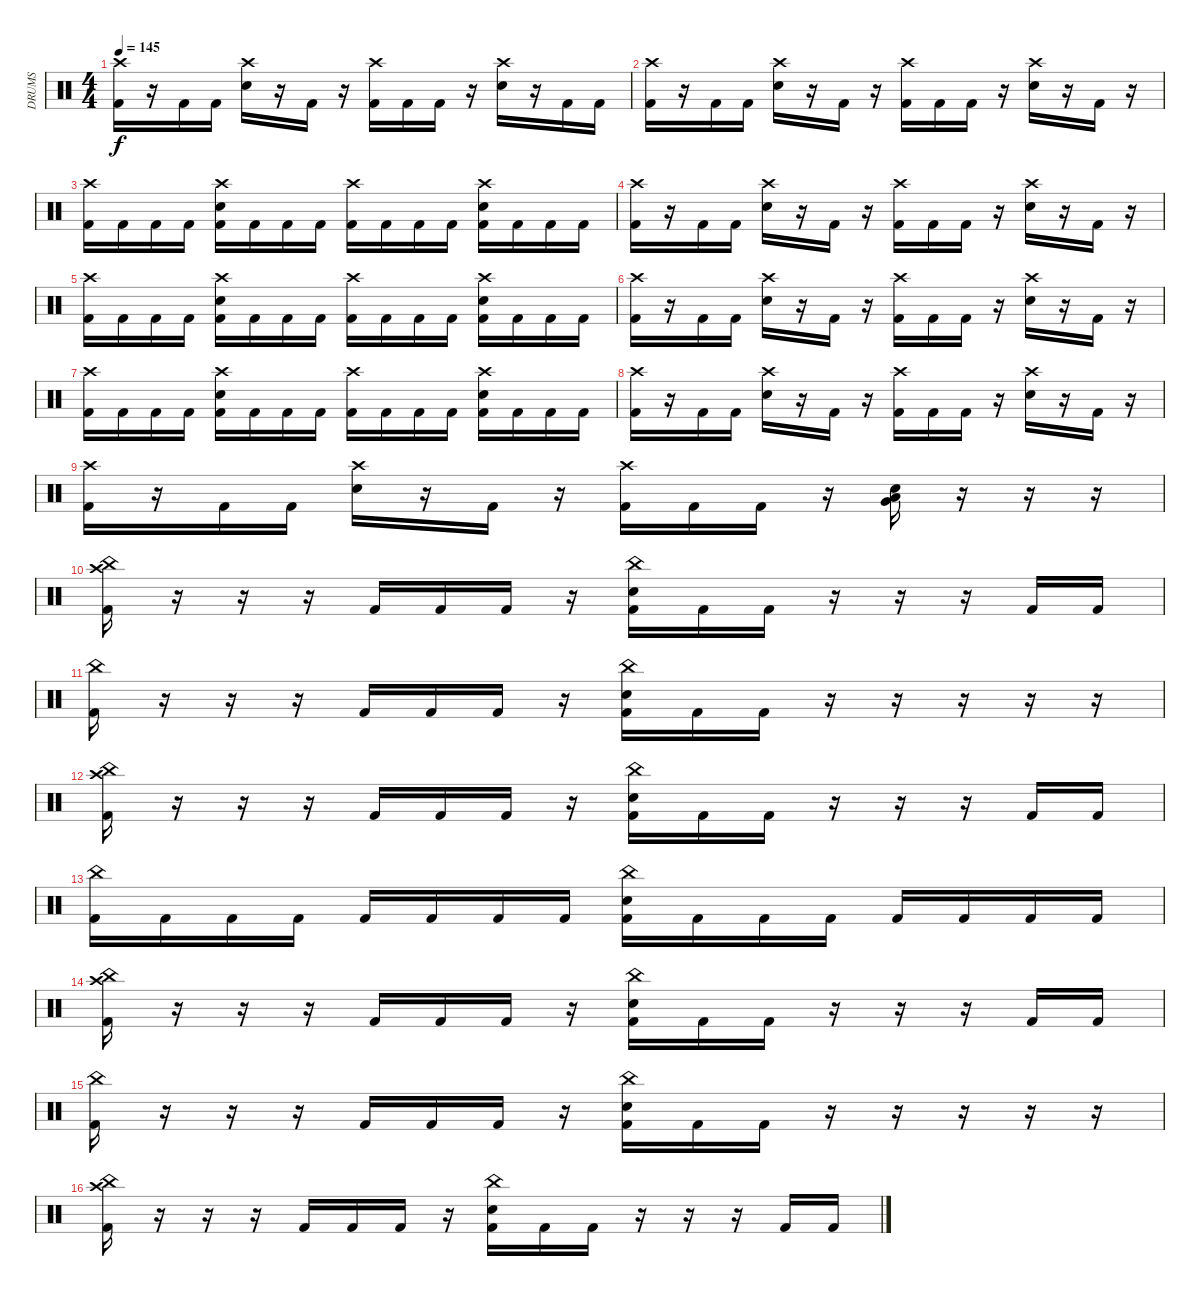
\track ("DRUMS" "DRUMS") {instrument percussion}
\staff {score}
\articulation defaults
\ts (4 4)
\tempo 145
\clef neutral
\ks c
("Crash high (hit)" "Kick (hit) 2").16{dy f} r.16 "Kick (hit) 2".16 "Kick (hit) 2".16 ("Crash high (hit)" "Electric Snare (hit)").16 r.16 "Kick (hit) 2".16 r.16 ("Crash high (hit)" "Kick (hit) 2").16 "Kick (hit) 2".16 "Kick (hit) 2".16 r.16 ("Crash high (hit)" "Electric Snare (hit)").16 r.16 "Kick (hit) 2".16 "Kick (hit) 2".16 |
("Crash high (hit)" "Kick (hit) 2").16 r.16 "Kick (hit) 2".16 "Kick (hit) 2".16 ("Crash high (hit)" "Electric Snare (hit)").16 r.16 "Kick (hit) 2".16 r.16 ("Crash high (hit)" "Kick (hit) 2").16 "Kick (hit) 2".16 "Kick (hit) 2".16 r.16 ("Crash high (hit)" "Electric Snare (hit)").16 r.16 "Kick (hit) 2".16 r.16 |
("Crash high (hit)" "Kick (hit) 2").16 "Kick (hit) 2".16 "Kick (hit) 2".16 "Kick (hit) 2".16 ("Crash high (hit)" "Electric Snare (hit)" "Kick (hit) 2").16 "Kick (hit) 2".16 "Kick (hit) 2".16 "Kick (hit) 2".16 ("Crash high (hit)" "Kick (hit) 2").16 "Kick (hit) 2".16 "Kick (hit) 2".16 "Kick (hit) 2".16 ("Crash high (hit)" "Electric Snare (hit)" "Kick (hit) 2").16 "Kick (hit) 2".16 "Kick (hit) 2".16 "Kick (hit) 2".16 |
("Crash high (hit)" "Kick (hit) 2").16 r.16 "Kick (hit) 2".16 "Kick (hit) 2".16 ("Crash high (hit)" "Electric Snare (hit)").16 r.16 "Kick (hit) 2".16 r.16 ("Crash high (hit)" "Kick (hit) 2").16 "Kick (hit) 2".16 "Kick (hit) 2".16 r.16 ("Crash high (hit)" "Electric Snare (hit)").16 r.16 "Kick (hit) 2".16 r.16 |
("Crash high (hit)" "Kick (hit) 2").16 "Kick (hit) 2".16 "Kick (hit) 2".16 "Kick (hit) 2".16 ("Crash high (hit)" "Electric Snare (hit)" "Kick (hit) 2").16 "Kick (hit) 2".16 "Kick (hit) 2".16 "Kick (hit) 2".16 ("Crash high (hit)" "Kick (hit) 2").16 "Kick (hit) 2".16 "Kick (hit) 2".16 "Kick (hit) 2".16 ("Crash high (hit)" "Electric Snare (hit)" "Kick (hit) 2").16 "Kick (hit) 2".16 "Kick (hit) 2".16 "Kick (hit) 2".16 |
("Crash high (hit)" "Kick (hit) 2").16 r.16 "Kick (hit) 2".16 "Kick (hit) 2".16 ("Crash high (hit)" "Electric Snare (hit)").16 r.16 "Kick (hit) 2".16 r.16 ("Crash high (hit)" "Kick (hit) 2").16 "Kick (hit) 2".16 "Kick (hit) 2".16 r.16 ("Crash high (hit)" "Electric Snare (hit)").16 r.16 "Kick (hit) 2".16 r.16 |
("Crash high (hit)" "Kick (hit) 2").16 "Kick (hit) 2".16 "Kick (hit) 2".16 "Kick (hit) 2".16 ("Crash high (hit)" "Electric Snare (hit)" "Kick (hit) 2").16 "Kick (hit) 2".16 "Kick (hit) 2".16 "Kick (hit) 2".16 ("Crash high (hit)" "Kick (hit) 2").16 "Kick (hit) 2".16 "Kick (hit) 2".16 "Kick (hit) 2".16 ("Crash high (hit)" "Electric Snare (hit)" "Kick (hit) 2").16 "Kick (hit) 2".16 "Kick (hit) 2".16 "Kick (hit) 2".16 |
("Crash high (hit)" "Kick (hit) 2").16 r.16 "Kick (hit) 2".16 "Kick (hit) 2".16 ("Crash high (hit)" "Electric Snare (hit)").16 r.16 "Kick (hit) 2".16 r.16 ("Crash high (hit)" "Kick (hit) 2").16 "Kick (hit) 2".16 "Kick (hit) 2".16 r.16 ("Crash high (hit)" "Electric Snare (hit)").16 r.16 "Kick (hit) 2".16 r.16 |
("Crash high (hit)" "Kick (hit) 2").16 r.16 "Kick (hit) 2".16 "Kick (hit) 2".16 ("Crash high (hit)" "Electric Snare (hit)").16 r.16 "Kick (hit) 2".16 r.16 ("Crash high (hit)" "Kick (hit) 2").16 "Kick (hit) 2".16 "Kick (hit) 2".16 r.16 ("Very Low Tom (hit)" "Low Floor Tom (hit)" "Electric Snare (hit)").16 r.16 r.16 r.16 |
("Crash high (hit)" "China (hit)" "Kick (hit) 2").16 r.16 r.16 r.16 "Kick (hit) 2".16 "Kick (hit) 2".16 "Kick (hit) 2".16 r.16 ("China (hit)" "Electric Snare (hit)" "Kick (hit) 2").16 "Kick (hit) 2".16 "Kick (hit) 2".16 r.16 r.16 r.16 "Kick (hit) 2".16 "Kick (hit) 2".16 |
("China (hit)" "Kick (hit) 2").16 r.16 r.16 r.16 "Kick (hit) 2".16 "Kick (hit) 2".16 "Kick (hit) 2".16 r.16 ("China (hit)" "Electric Snare (hit)" "Kick (hit) 2").16 "Kick (hit) 2".16 "Kick (hit) 2".16 r.16 r.16 r.16 r.16 r.16 |
("Crash high (hit)" "China (hit)" "Kick (hit) 2").16 r.16 r.16 r.16 "Kick (hit) 2".16 "Kick (hit) 2".16 "Kick (hit) 2".16 r.16 ("China (hit)" "Electric Snare (hit)" "Kick (hit) 2").16 "Kick (hit) 2".16 "Kick (hit) 2".16 r.16 r.16 r.16 "Kick (hit) 2".16 "Kick (hit) 2".16 |
("China (hit)" "Kick (hit) 2").16 "Kick (hit) 2".16 "Kick (hit) 2".16 "Kick (hit) 2".16 "Kick (hit) 2".16 "Kick (hit) 2".16 "Kick (hit) 2".16 "Kick (hit) 2".16 ("China (hit)" "Electric Snare (hit)" "Kick (hit) 2").16 "Kick (hit) 2".16 "Kick (hit) 2".16 "Kick (hit) 2".16 "Kick (hit) 2".16 "Kick (hit) 2".16 "Kick (hit) 2".16 "Kick (hit) 2".16 |
("Crash high (hit)" "China (hit)" "Kick (hit) 2").16 r.16 r.16 r.16 "Kick (hit) 2".16 "Kick (hit) 2".16 "Kick (hit) 2".16 r.16 ("China (hit)" "Electric Snare (hit)" "Kick (hit) 2").16 "Kick (hit) 2".16 "Kick (hit) 2".16 r.16 r.16 r.16 "Kick (hit) 2".16 "Kick (hit) 2".16 |
("China (hit)" "Kick (hit) 2").16 r.16 r.16 r.16 "Kick (hit) 2".16 "Kick (hit) 2".16 "Kick (hit) 2".16 r.16 ("China (hit)" "Electric Snare (hit)" "Kick (hit) 2").16 "Kick (hit) 2".16 "Kick (hit) 2".16 r.16 r.16 r.16 r.16 r.16 |
("Crash high (hit)" "China (hit)" "Kick (hit) 2").16 r.16 r.16 r.16 "Kick (hit) 2".16 "Kick (hit) 2".16 "Kick (hit) 2".16 r.16 ("China (hit)" "Electric Snare (hit)" "Kick (hit) 2").16 "Kick (hit) 2".16 "Kick (hit) 2".16 r.16 r.16 r.16 "Kick (hit) 2".16 "Kick (hit) 2".16
